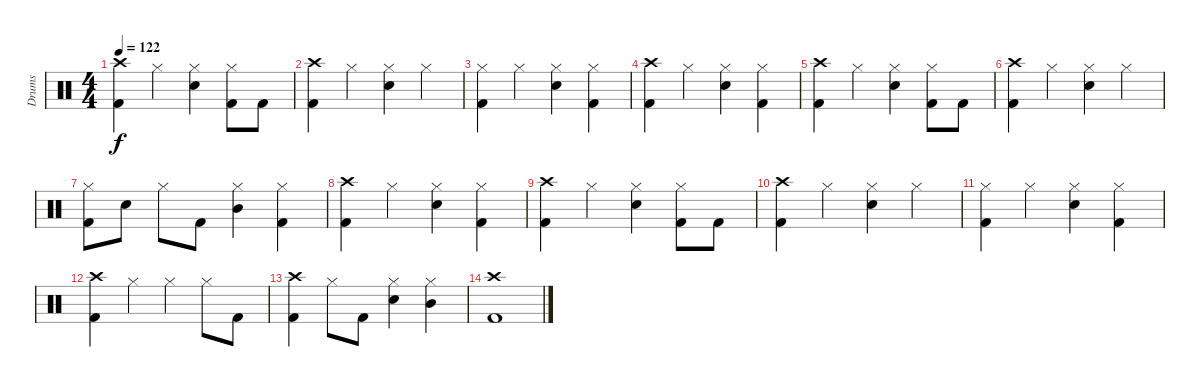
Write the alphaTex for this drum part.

\track ("Drums" "Drums") {instrument percussion}
\staff {score}
\articulation defaults
\ts (4 4)
\tempo 122
\clef neutral
\ks c
("Crash high (hit)" "Kick (hit) 2").4{dy f} "Hi-Hat (closed)".4 ("Hi-Hat (closed)" "Electric Snare (hit)").4 ("Hi-Hat (closed)" "Kick (hit) 2").8 "Kick (hit) 2".8 |
("Crash high (hit)" "Kick (hit) 2").4 "Hi-Hat (closed)".4 ("Hi-Hat (closed)" "Electric Snare (hit)").4 "Hi-Hat (closed)".4 |
("Hi-Hat (closed)" "Kick (hit) 2").4 "Hi-Hat (closed)".4 ("Hi-Hat (closed)" "Electric Snare (hit)").4 ("Hi-Hat (closed)" "Kick (hit) 2").4 |
("Crash high (hit)" "Kick (hit) 2").4 "Hi-Hat (closed)".4 ("Hi-Hat (closed)" "Electric Snare (hit)").4 ("Hi-Hat (closed)" "Kick (hit) 2").4 |
("Crash high (hit)" "Kick (hit) 2").4 "Hi-Hat (closed)".4 ("Hi-Hat (closed)" "Electric Snare (hit)").4 ("Hi-Hat (closed)" "Kick (hit) 2").8 "Kick (hit) 2".8 |
("Crash high (hit)" "Kick (hit) 2").4 "Hi-Hat (closed)".4 ("Hi-Hat (closed)" "Electric Snare (hit)").4 "Hi-Hat (closed)".4 |
("Hi-Hat (closed)" "Kick (hit) 2").8 "Electric Snare (hit)".8 "Hi-Hat (closed)".8 "Kick (hit) 2".8 ("Hi-Hat (closed)" "Mid Tom (hit)").4 ("Hi-Hat (closed)" "Kick (hit) 2").4 |
("Crash high (hit)" "Kick (hit) 2").4 "Hi-Hat (closed)".4 ("Hi-Hat (closed)" "Electric Snare (hit)").4 ("Hi-Hat (closed)" "Kick (hit) 2").4 |
("Crash high (hit)" "Kick (hit) 2").4 "Hi-Hat (closed)".4 ("Hi-Hat (closed)" "Electric Snare (hit)").4 ("Hi-Hat (closed)" "Kick (hit) 2").8 "Kick (hit) 2".8 |
("Crash high (hit)" "Kick (hit) 2").4 "Hi-Hat (closed)".4 ("Hi-Hat (closed)" "Electric Snare (hit)").4 "Hi-Hat (closed)".4 |
("Hi-Hat (closed)" "Kick (hit) 2").4 "Hi-Hat (closed)".4 ("Hi-Hat (closed)" "Electric Snare (hit)").4 ("Hi-Hat (closed)" "Kick (hit) 2").4 |
("Crash high (hit)" "Kick (hit) 2").4 "Hi-Hat (closed)".4 "Hi-Hat (closed)".4 "Hi-Hat (closed)".8 "Kick (hit) 2".8 |
("Crash high (hit)" "Kick (hit) 2").4 "Hi-Hat (closed)".8 "Kick (hit) 2".8 ("Hi-Hat (closed)" "Electric Snare (hit)").4 ("Hi-Hat (closed)" "Mid Tom (hit)").4 |
("Crash high (hit)" "Kick (hit) 2").1
